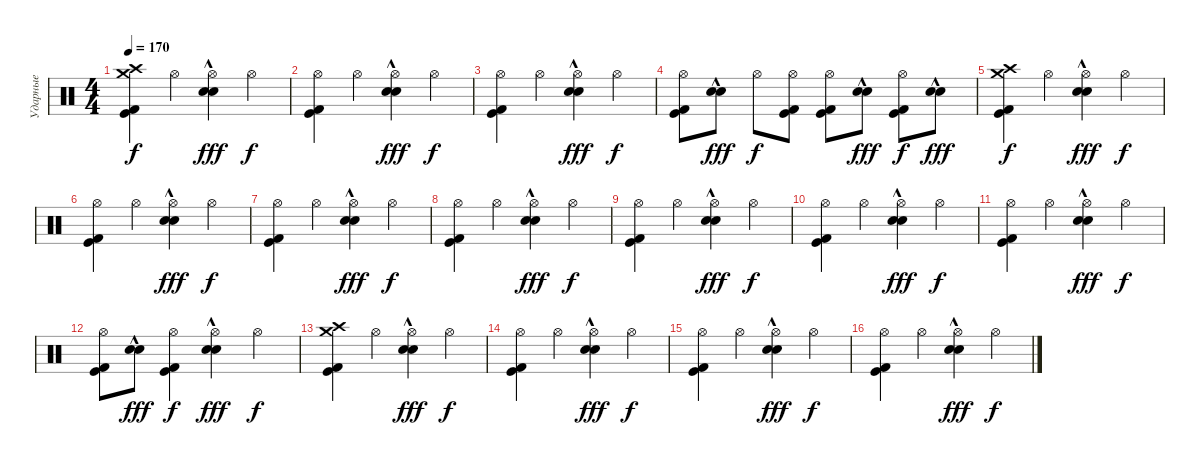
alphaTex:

\track ("Ударные" "Ударные") {instrument percussion}
\staff {score}
\articulation defaults
\ts (4 4)
\tempo 170
\clef neutral
\ks c
("Crash high (hit)" "Kick (hit)" "Kick (hit) 2" "Crash medium (hit)").4{dy f} "Hi-Hat (open)".4 ("Hi-Hat (open)" "Snare (hit) 2"{hac} "Electric Snare (hit)"{hac}).4{dy fff} "Hi-Hat (open)".4{dy f} |
("Hi-Hat (open)" "Kick (hit)" "Kick (hit) 2").4 "Hi-Hat (open)".4 ("Hi-Hat (open)" "Snare (hit) 2"{hac} "Electric Snare (hit)"{hac}).4{dy fff} "Hi-Hat (open)".4{dy f} |
("Hi-Hat (open)" "Kick (hit)" "Kick (hit) 2").4 "Hi-Hat (open)".4 ("Hi-Hat (open)" "Snare (hit) 2"{hac} "Electric Snare (hit)"{hac}).4{dy fff} "Hi-Hat (open)".4{dy f} |
("Hi-Hat (open)" "Kick (hit)" "Kick (hit) 2").8 ("Snare (hit) 2"{hac} "Electric Snare (hit)"{hac}).8{dy fff} "Hi-Hat (open)".8{dy f} ("Hi-Hat (open)" "Kick (hit)" "Kick (hit) 2").8 ("Hi-Hat (open)" "Kick (hit)" "Kick (hit) 2").8 ("Snare (hit) 2"{hac} "Electric Snare (hit)"{hac}).8{dy fff} ("Hi-Hat (open)" "Kick (hit)" "Kick (hit) 2").8{dy f} ("Snare (hit) 2"{hac} "Electric Snare (hit)"{hac}).8{dy fff} |
("Crash high (hit)" "Kick (hit)" "Kick (hit) 2" "Crash medium (hit)").4{dy f} "Hi-Hat (open)".4 ("Hi-Hat (open)" "Snare (hit) 2"{hac} "Electric Snare (hit)"{hac}).4{dy fff} "Hi-Hat (open)".4{dy f} |
("Hi-Hat (open)" "Kick (hit)" "Kick (hit) 2").4 "Hi-Hat (open)".4 ("Hi-Hat (open)" "Snare (hit) 2"{hac} "Electric Snare (hit)"{hac}).4{dy fff} "Hi-Hat (open)".4{dy f} |
("Hi-Hat (open)" "Kick (hit)" "Kick (hit) 2").4 "Hi-Hat (open)".4 ("Hi-Hat (open)" "Snare (hit) 2"{hac} "Electric Snare (hit)"{hac}).4{dy fff} "Hi-Hat (open)".4{dy f} |
("Hi-Hat (open)" "Kick (hit)" "Kick (hit) 2").4 "Hi-Hat (open)".4 ("Hi-Hat (open)" "Snare (hit) 2"{hac} "Electric Snare (hit)"{hac}).4{dy fff} "Hi-Hat (open)".4{dy f} |
("Hi-Hat (open)" "Kick (hit)" "Kick (hit) 2").4 "Hi-Hat (open)".4 ("Hi-Hat (open)" "Snare (hit) 2"{hac} "Electric Snare (hit)"{hac}).4{dy fff} "Hi-Hat (open)".4{dy f} |
("Hi-Hat (open)" "Kick (hit)" "Kick (hit) 2").4 "Hi-Hat (open)".4 ("Hi-Hat (open)" "Snare (hit) 2"{hac} "Electric Snare (hit)"{hac}).4{dy fff} "Hi-Hat (open)".4{dy f} |
("Hi-Hat (open)" "Kick (hit)" "Kick (hit) 2").4 "Hi-Hat (open)".4 ("Hi-Hat (open)" "Snare (hit) 2"{hac} "Electric Snare (hit)"{hac}).4{dy fff} "Hi-Hat (open)".4{dy f} |
("Hi-Hat (open)" "Kick (hit)" "Kick (hit) 2").8 ("Snare (hit) 2"{hac} "Electric Snare (hit)"{hac}).8{dy fff} ("Hi-Hat (open)" "Kick (hit)" "Kick (hit) 2").4{dy f} ("Hi-Hat (open)" "Snare (hit) 2"{hac} "Electric Snare (hit)"{hac}).4{dy fff} "Hi-Hat (open)".4{dy f} |
("Crash high (hit)" "Kick (hit)" "Kick (hit) 2" "Crash medium (hit)").4 "Hi-Hat (open)".4 ("Hi-Hat (open)" "Snare (hit) 2"{hac} "Electric Snare (hit)"{hac}).4{dy fff} "Hi-Hat (open)".4{dy f} |
("Hi-Hat (open)" "Kick (hit)" "Kick (hit) 2").4 "Hi-Hat (open)".4 ("Hi-Hat (open)" "Snare (hit) 2"{hac} "Electric Snare (hit)"{hac}).4{dy fff} "Hi-Hat (open)".4{dy f} |
("Hi-Hat (open)" "Kick (hit)" "Kick (hit) 2").4 "Hi-Hat (open)".4 ("Hi-Hat (open)" "Snare (hit) 2"{hac} "Electric Snare (hit)"{hac}).4{dy fff} "Hi-Hat (open)".4{dy f} |
("Hi-Hat (open)" "Kick (hit)" "Kick (hit) 2").4 "Hi-Hat (open)".4 ("Hi-Hat (open)" "Snare (hit) 2"{hac} "Electric Snare (hit)"{hac}).4{dy fff} "Hi-Hat (open)".4{dy f}
